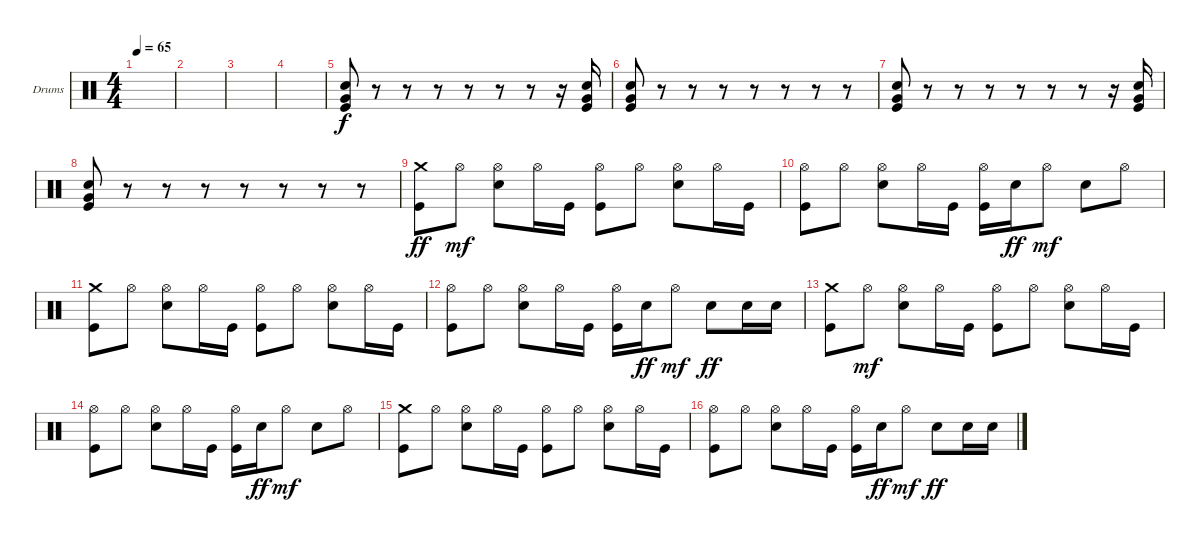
\defaultSystemsLayout 4
\bracketExtendMode groupsimilarinstruments
\firstSystemTrackNameOrientation horizontal
\otherSystemsTrackNameOrientation horizontal
\track ("Drumkit" "Drums") {instrument percussion}
\staff {score}
\articulation defaults
\ts (4 4)
\tempo 65
\clef neutral
\ks c
|
|
|
|
("Kick (hit)" "Snare (hit) 2" "Very Low Tom (hit)").8 r.8 r.8 r.8 r.8 r.8 r.8 r.16 ("Kick (hit)" "Snare (hit) 2" "Very Low Tom (hit)").16 |
("Kick (hit)" "Snare (hit) 2" "Very Low Tom (hit)").8 r.8 r.8 r.8 r.8 r.8 r.8 r.8 |
("Kick (hit)" "Snare (hit) 2" "Very Low Tom (hit)").8 r.8 r.8 r.8 r.8 r.8 r.8 r.16 ("Kick (hit)" "Snare (hit) 2" "Very Low Tom (hit)").16 |
("Kick (hit)" "Snare (hit) 2" "Very Low Tom (hit)").8 r.8 r.8 r.8 r.8 r.8 r.8 r.8 |
("Kick (hit)" "Crash medium (hit)").8{dy ff} "Hi-Hat (open)".8{dy mf} ("Hi-Hat (open)" "Snare (hit) 2").8 "Hi-Hat (open)".16 "Kick (hit)".16 ("Hi-Hat (open)" "Kick (hit)").8 "Hi-Hat (open)".8 ("Snare (hit) 2" "Hi-Hat (open)").8 "Hi-Hat (open)".16 "Kick (hit)".16 |
("Hi-Hat (open)" "Kick (hit)").8 "Hi-Hat (open)".8 ("Hi-Hat (open)" "Snare (hit) 2").8 "Hi-Hat (open)".16 "Kick (hit)".16 ("Hi-Hat (open)" "Kick (hit)").16 "Snare (hit) 2".16{dy ff} "Hi-Hat (open)".8{dy mf} "Snare (hit) 2".8 "Hi-Hat (open)".8 |
("Kick (hit)" "Crash medium (hit)").8 "Hi-Hat (open)".8 ("Hi-Hat (open)" "Snare (hit) 2").8 "Hi-Hat (open)".16 "Kick (hit)".16 ("Hi-Hat (open)" "Kick (hit)").8 "Hi-Hat (open)".8 ("Hi-Hat (open)" "Snare (hit) 2").8 "Hi-Hat (open)".16 "Kick (hit)".16 |
("Hi-Hat (open)" "Kick (hit)").8 "Hi-Hat (open)".8 ("Hi-Hat (open)" "Snare (hit) 2").8 "Hi-Hat (open)".16 "Kick (hit)".16 ("Hi-Hat (open)" "Kick (hit)").16 "Snare (hit) 2".16{dy ff} "Hi-Hat (open)".8{dy mf} "Snare (hit) 2".8{dy ff} "Snare (hit) 2".16 "Snare (hit) 2".16 |
("Kick (hit)" "Crash medium (hit)").8 "Hi-Hat (open)".8{dy mf} ("Hi-Hat (open)" "Snare (hit) 2").8 "Hi-Hat (open)".16 "Kick (hit)".16 ("Hi-Hat (open)" "Kick (hit)").8 "Hi-Hat (open)".8 ("Snare (hit) 2" "Hi-Hat (open)").8 "Hi-Hat (open)".16 "Kick (hit)".16 |
("Hi-Hat (open)" "Kick (hit)").8 "Hi-Hat (open)".8 ("Hi-Hat (open)" "Snare (hit) 2").8 "Hi-Hat (open)".16 "Kick (hit)".16 ("Hi-Hat (open)" "Kick (hit)").16 "Snare (hit) 2".16{dy ff} "Hi-Hat (open)".8{dy mf} "Snare (hit) 2".8 "Hi-Hat (open)".8 |
("Kick (hit)" "Crash medium (hit)").8 "Hi-Hat (open)".8 ("Hi-Hat (open)" "Snare (hit) 2").8 "Hi-Hat (open)".16 "Kick (hit)".16 ("Hi-Hat (open)" "Kick (hit)").8 "Hi-Hat (open)".8 ("Hi-Hat (open)" "Snare (hit) 2").8 "Hi-Hat (open)".16 "Kick (hit)".16 |
("Hi-Hat (open)" "Kick (hit)").8 "Hi-Hat (open)".8 ("Hi-Hat (open)" "Snare (hit) 2").8 "Hi-Hat (open)".16 "Kick (hit)".16 ("Hi-Hat (open)" "Kick (hit)").16 "Snare (hit) 2".16{dy ff} "Hi-Hat (open)".8{dy mf} "Snare (hit) 2".8{dy ff} "Snare (hit) 2".16 "Snare (hit) 2".16
